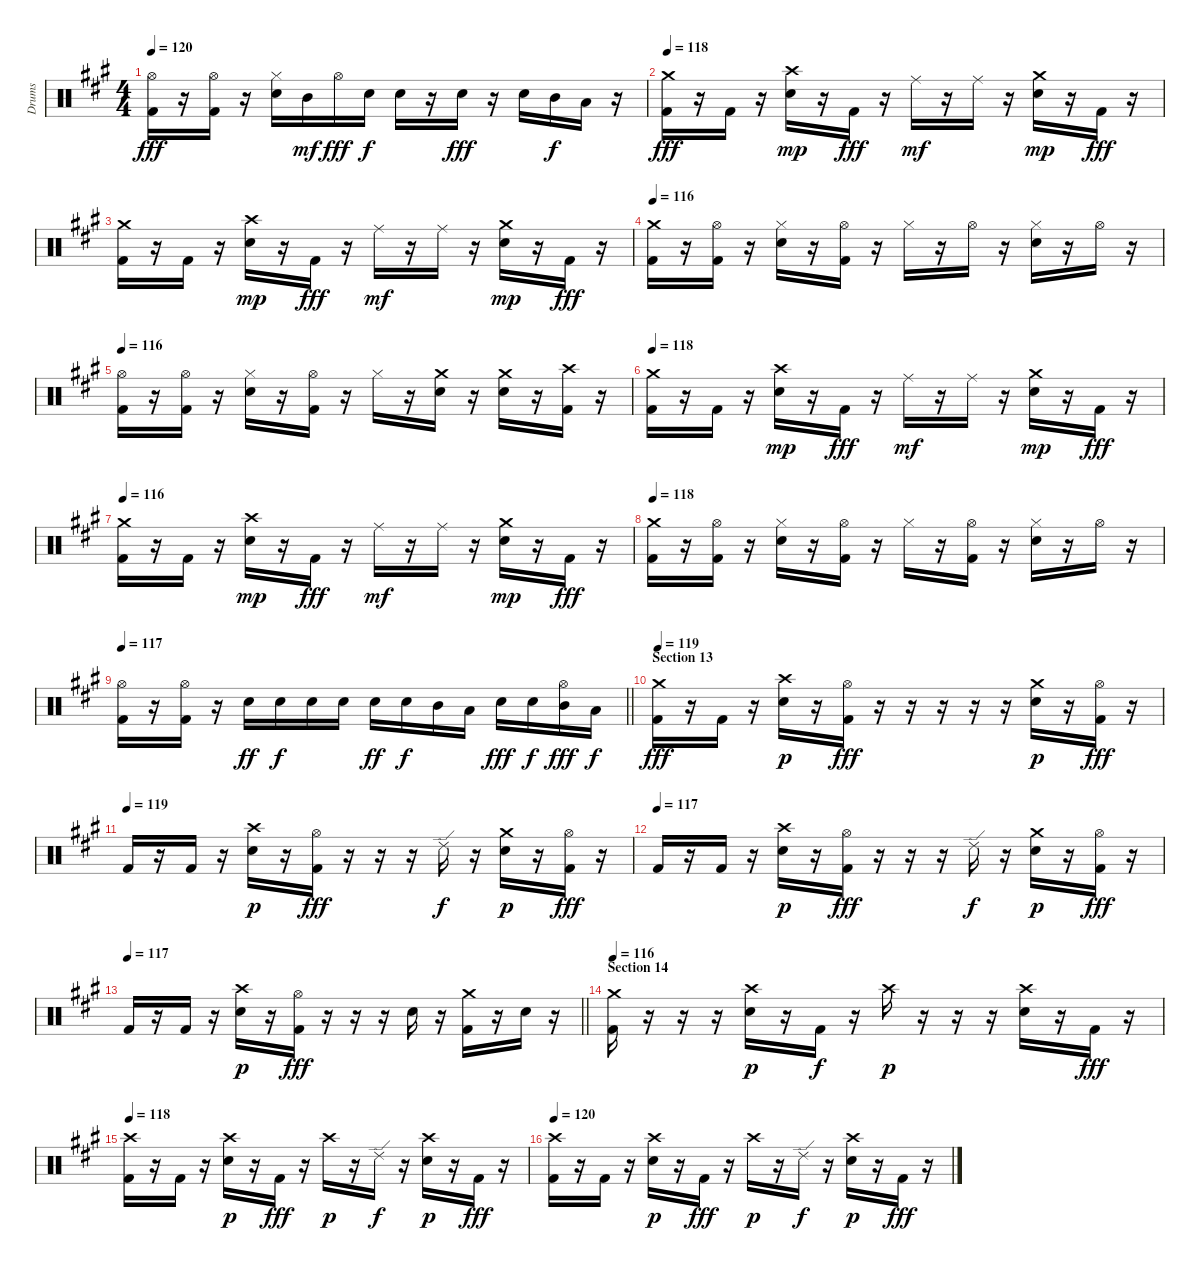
\track ("Drums" "Drums") {instrument percussion}
\staff {score}
\articulation defaults
\ts (4 4)
\tempo 120
\clef neutral
\ks f#minor
("Hi-Hat (open)" "Kick (hit) 2").16{dy fff} r.16 ("Hi-Hat (open)" "Kick (hit) 2").16 r.16 ("Hi-Hat (closed)" "Electric Snare (hit)").16 "Mid Tom (hit)".16{dy mf} "Hi-Hat (open)".16{dy fff} "Electric Snare (hit)".16{dy f} "Electric Snare (hit)".16 r.16 "Electric Snare (hit)".16{dy fff} r.16 "Electric Snare (hit)".16 "Mid Tom (hit)".16{dy f} "Low Tom (hit)".16 r.16 |
\tempo 118
("Crash medium (hit)" "Kick (hit) 2").16{dy fff} r.16 "Kick (hit) 2".16 r.16 ("Crash high (hit)" "Electric Snare (hit)").16{dy mp} r.16 "Kick (hit) 2".16{dy fff} r.16 "Ride (middle)".16{dy mf} r.16 "Ride (middle)".16 r.16 ("Crash medium (hit)" "Electric Snare (hit)").16{dy mp} r.16 "Kick (hit) 2".16{dy fff} r.16 |
("Crash medium (hit)" "Kick (hit) 2").16 r.16 "Kick (hit) 2".16 r.16 ("Crash high (hit)" "Electric Snare (hit)").16{dy mp} r.16 "Kick (hit) 2".16{dy fff} r.16 "Ride (middle)".16{dy mf} r.16 "Ride (middle)".16 r.16 ("Crash medium (hit)" "Electric Snare (hit)").16{dy mp} r.16 "Kick (hit) 2".16{dy fff} r.16 |
\tempo 116
("Crash medium (hit)" "Kick (hit) 2").16 r.16 ("Hi-Hat (open)" "Kick (hit) 2").16 r.16 ("Hi-Hat (closed)" "Electric Snare (hit)").16 r.16 ("Hi-Hat (open)" "Kick (hit) 2").16 r.16 "Hi-Hat (closed)".16 r.16 "Hi-Hat (open)".16 r.16 ("Hi-Hat (closed)" "Electric Snare (hit)").16 r.16 "Hi-Hat (open)".16 r.16 |
\tempo 116
("Hi-Hat (open)" "Kick (hit) 2").16 r.16 ("Hi-Hat (open)" "Kick (hit) 2").16 r.16 ("Hi-Hat (closed)" "Electric Snare (hit)").16 r.16 ("Hi-Hat (open)" "Kick (hit) 2").16 r.16 "Hi-Hat (closed)".16 r.16 ("Crash medium (hit)" "Electric Snare (hit)").16 r.16 ("Crash medium (hit)" "Electric Snare (hit)").16 r.16 ("Crash high (hit)" "Kick (hit) 2").16 r.16 |
\tempo 118
("Crash medium (hit)" "Kick (hit) 2").16 r.16 "Kick (hit) 2".16 r.16 ("Crash high (hit)" "Electric Snare (hit)").16{dy mp} r.16 "Kick (hit) 2".16{dy fff} r.16 "Ride (middle)".16{dy mf} r.16 "Ride (middle)".16 r.16 ("Crash medium (hit)" "Electric Snare (hit)").16{dy mp} r.16 "Kick (hit) 2".16{dy fff} r.16 |
\tempo 116
("Crash medium (hit)" "Kick (hit) 2").16 r.16 "Kick (hit) 2".16 r.16 ("Crash high (hit)" "Electric Snare (hit)").16{dy mp} r.16 "Kick (hit) 2".16{dy fff} r.16 "Ride (middle)".16{dy mf} r.16 "Ride (middle)".16 r.16 ("Crash medium (hit)" "Electric Snare (hit)").16{dy mp} r.16 "Kick (hit) 2".16{dy fff} r.16 |
\tempo 118
("Crash medium (hit)" "Kick (hit) 2").16 r.16 ("Hi-Hat (open)" "Kick (hit) 2").16 r.16 ("Hi-Hat (closed)" "Electric Snare (hit)").16 r.16 ("Hi-Hat (open)" "Kick (hit) 2").16 r.16 "Hi-Hat (closed)".16 r.16 ("Hi-Hat (open)" "Kick (hit) 2").16 r.16 ("Hi-Hat (closed)" "Electric Snare (hit)").16 r.16 "Hi-Hat (open)".16 r.16 |
\tempo 117
\barLineRight lightlight
("Hi-Hat (open)" "Kick (hit) 2").16 r.16 ("Hi-Hat (open)" "Kick (hit) 2").16 r.16 "Electric Snare (hit)".16{dy ff} "Electric Snare (hit)".16{dy f} "Electric Snare (hit)".16 "Electric Snare (hit)".16 "Electric Snare (hit)".16{dy ff} "Electric Snare (hit)".16{dy f} "Mid Tom (hit)".16 "Low Tom (hit)".16 "Electric Snare (hit)".16{dy fff} "Electric Snare (hit)".16{dy f} ("Hi-Hat (open)" "Mid Tom (hit)").16{dy fff} "Low Tom (hit)".16{dy f} |
\section ("" "Section 13")
\tempo 119
("Crash medium (hit)" "Kick (hit) 2").16{dy fff} r.16 "Kick (hit) 2".16 r.16 ("Crash high (hit)" "Electric Snare (hit)").16{dy p} r.16 ("Hi-Hat (open)" "Kick (hit) 2").16{dy fff} r.16 r.16 r.16 r.16 r.16 ("Crash medium (hit)" "Electric Snare (hit)").16{dy p} r.16 ("Hi-Hat (open)" "Kick (hit) 2").16{dy fff} r.16 |
\tempo (119)
"Kick (hit) 2".16 r.16 "Kick (hit) 2".16 r.16 ("Crash high (hit)" "Electric Snare (hit)").16{dy p} r.16 ("Hi-Hat (open)" "Kick (hit) 2").16{dy fff} r.16 r.16 r.16 "Ride (edge) 2".16{dy f} r.16 ("Crash medium (hit)" "Electric Snare (hit)").16{dy p} r.16 ("Hi-Hat (open)" "Kick (hit) 2").16{dy fff} r.16 |
\tempo (117)
"Kick (hit) 2".16 r.16 "Kick (hit) 2".16 r.16 ("Crash high (hit)" "Electric Snare (hit)").16{dy p} r.16 ("Hi-Hat (open)" "Kick (hit) 2").16{dy fff} r.16 r.16 r.16 "Ride (edge) 2".16{dy f} r.16 ("Crash medium (hit)" "Electric Snare (hit)").16{dy p} r.16 ("Hi-Hat (open)" "Kick (hit) 2").16{dy fff} r.16 |
\tempo 117
\barLineRight lightlight "Kick (hit) 2".16
r.16 "Kick (hit) 2".16 r.16 ("Crash high (hit)" "Electric Snare (hit)").16{dy p} r.16 ("Hi-Hat (open)" "Kick (hit) 2").16{dy fff} r.16 r.16 r.16 "Electric Snare (hit)".16 r.16 ("Crash medium (hit)" "Kick (hit) 2").16 r.16 "Electric Snare (hit)".16 r.16 |
\section ("" "Section 14")
\tempo 116
("Crash medium (hit)" "Kick (hit) 2").16 r.16 r.16 r.16 ("Crash high (hit)" "Electric Snare (hit)").16{dy p} r.16 "Kick (hit) 2".16{dy f} r.16 "Crash high (hit)".16{dy p} r.16 r.16 r.16 ("Crash high (hit)" "Electric Snare (hit)").16 r.16 "Kick (hit) 2".16{dy fff} r.16 |
\tempo 118
("Crash high (hit)" "Kick (hit) 2").16 r.16 "Kick (hit) 2".16 r.16 ("Crash high (hit)" "Electric Snare (hit)").16{dy p} r.16 "Kick (hit) 2".16{dy fff} r.16 "Crash high (hit)".16{dy p} r.16 "Ride (edge) 2".16{dy f} r.16 ("Crash high (hit)" "Electric Snare (hit)").16{dy p} r.16 "Kick (hit) 2".16{dy fff} r.16 |
\tempo 120
("Crash high (hit)" "Kick (hit) 2").16 r.16 "Kick (hit) 2".16 r.16 ("Crash high (hit)" "Electric Snare (hit)").16{dy p} r.16 "Kick (hit) 2".16{dy fff} r.16 "Crash high (hit)".16{dy p} r.16 "Ride (edge) 2".16{dy f} r.16 ("Crash high (hit)" "Electric Snare (hit)").16{dy p} r.16 "Kick (hit) 2".16{dy fff} r.16
